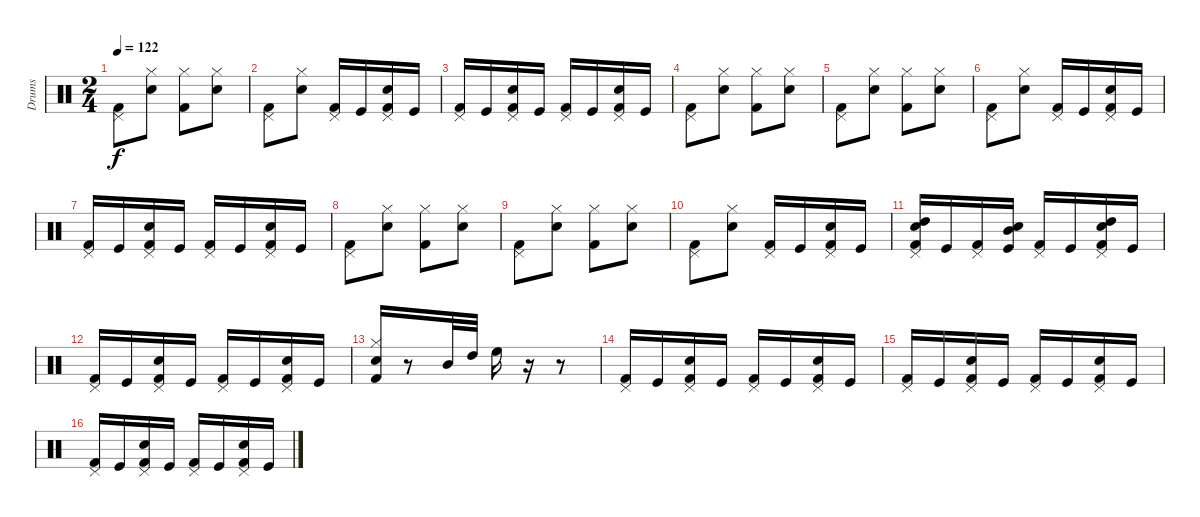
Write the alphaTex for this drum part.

\track ("Drums" "Drums") {instrument percussion}
\staff {score}
\articulation defaults
\ts (2 4)
\tempo 122
\clef neutral
\ks c
("Pedal Hi-Hat (hit)" "Kick (hit) 2").8{dy f} ("Hi-Hat (closed)" "Snare (hit) 2").8 ("Hi-Hat (closed)" "Kick (hit) 2").8 ("Hi-Hat (closed)" "Snare (hit) 2").8 |
("Pedal Hi-Hat (hit)" "Kick (hit) 2").8 ("Hi-Hat (closed)" "Snare (hit) 2").8 ("Pedal Hi-Hat (hit)" "Kick (hit) 2").16 "Kick (hit)".16 ("Pedal Hi-Hat (hit)" "Snare (hit) 2" "Kick (hit) 2").16 "Kick (hit)".16 |
("Pedal Hi-Hat (hit)" "Kick (hit) 2").16 "Kick (hit)".16 ("Pedal Hi-Hat (hit)" "Snare (hit) 2" "Kick (hit) 2").16 "Kick (hit)".16 ("Pedal Hi-Hat (hit)" "Kick (hit) 2").16 "Kick (hit)".16 ("Pedal Hi-Hat (hit)" "Snare (hit) 2" "Kick (hit) 2").16 "Kick (hit)".16 |
("Pedal Hi-Hat (hit)" "Kick (hit) 2").8 ("Hi-Hat (closed)" "Snare (hit) 2").8 ("Hi-Hat (closed)" "Kick (hit) 2").8 ("Hi-Hat (closed)" "Snare (hit) 2").8 |
("Pedal Hi-Hat (hit)" "Kick (hit) 2").8 ("Hi-Hat (closed)" "Snare (hit) 2").8 ("Hi-Hat (closed)" "Kick (hit) 2").8 ("Hi-Hat (closed)" "Snare (hit) 2").8 |
("Pedal Hi-Hat (hit)" "Kick (hit) 2").8 ("Hi-Hat (closed)" "Snare (hit) 2").8 ("Pedal Hi-Hat (hit)" "Kick (hit) 2").16 "Kick (hit)".16 ("Pedal Hi-Hat (hit)" "Snare (hit) 2" "Kick (hit) 2").16 "Kick (hit)".16 |
("Pedal Hi-Hat (hit)" "Kick (hit) 2").16 "Kick (hit)".16 ("Pedal Hi-Hat (hit)" "Snare (hit) 2" "Kick (hit) 2").16 "Kick (hit)".16 ("Pedal Hi-Hat (hit)" "Kick (hit) 2").16 "Kick (hit)".16 ("Pedal Hi-Hat (hit)" "Snare (hit) 2" "Kick (hit) 2").16 "Kick (hit)".16 |
("Pedal Hi-Hat (hit)" "Kick (hit) 2").8 ("Hi-Hat (closed)" "Snare (hit) 2").8 ("Hi-Hat (closed)" "Kick (hit) 2").8 ("Hi-Hat (closed)" "Snare (hit) 2").8 |
("Pedal Hi-Hat (hit)" "Kick (hit) 2").8 ("Hi-Hat (closed)" "Snare (hit) 2").8 ("Hi-Hat (closed)" "Kick (hit) 2").8 ("Hi-Hat (closed)" "Snare (hit) 2").8 |
("Pedal Hi-Hat (hit)" "Kick (hit) 2").8 ("Hi-Hat (closed)" "Snare (hit) 2").8 ("Pedal Hi-Hat (hit)" "Kick (hit) 2").16 "Kick (hit)".16 ("Pedal Hi-Hat (hit)" "Snare (hit) 2" "Kick (hit) 2").16 "Kick (hit)".16 |
("Pedal Hi-Hat (hit)" "High Tom (hit)" "Snare (hit) 2" "Kick (hit) 2").16 "Kick (hit)".16 ("Pedal Hi-Hat (hit)" "Kick (hit) 2").16 ("Mid Tom (hit)" "Snare (hit) 2" "Kick (hit)").16 ("Pedal Hi-Hat (hit)" "Kick (hit) 2").16 "Kick (hit)".16 ("Pedal Hi-Hat (hit)" "High Tom (hit)" "Snare (hit) 2" "Kick (hit) 2").16 "Kick (hit)".16 |
("Pedal Hi-Hat (hit)" "Kick (hit) 2").16 "Kick (hit)".16 ("Pedal Hi-Hat (hit)" "Snare (hit) 2" "Kick (hit) 2").16 "Kick (hit)".16 ("Pedal Hi-Hat (hit)" "Kick (hit) 2").16 "Kick (hit)".16 ("Pedal Hi-Hat (hit)" "Snare (hit) 2" "Kick (hit) 2").16 "Kick (hit)".16 |
("Hi-Hat (closed)" "Snare (hit) 2" "Kick (hit) 2").16 r.8 "Mid Tom (hit)".32 "High Tom (hit)".32 "High Floor Tom (hit)".16 r.16 r.8 |
("Pedal Hi-Hat (hit)" "Kick (hit) 2").16 "Kick (hit)".16 ("Pedal Hi-Hat (hit)" "Snare (hit) 2" "Kick (hit) 2").16 "Kick (hit)".16 ("Pedal Hi-Hat (hit)" "Kick (hit) 2").16 "Kick (hit)".16 ("Pedal Hi-Hat (hit)" "Snare (hit) 2" "Kick (hit) 2").16 "Kick (hit)".16 |
("Pedal Hi-Hat (hit)" "Kick (hit) 2").16 "Kick (hit)".16 ("Pedal Hi-Hat (hit)" "Snare (hit) 2" "Kick (hit) 2").16 "Kick (hit)".16 ("Pedal Hi-Hat (hit)" "Kick (hit) 2").16 "Kick (hit)".16 ("Pedal Hi-Hat (hit)" "Snare (hit) 2" "Kick (hit) 2").16 "Kick (hit)".16 |
("Pedal Hi-Hat (hit)" "Kick (hit) 2").16 "Kick (hit)".16 ("Pedal Hi-Hat (hit)" "Snare (hit) 2" "Kick (hit) 2").16 "Kick (hit)".16 ("Pedal Hi-Hat (hit)" "Kick (hit) 2").16 "Kick (hit)".16 ("Pedal Hi-Hat (hit)" "Snare (hit) 2" "Kick (hit) 2").16 "Kick (hit)".16
